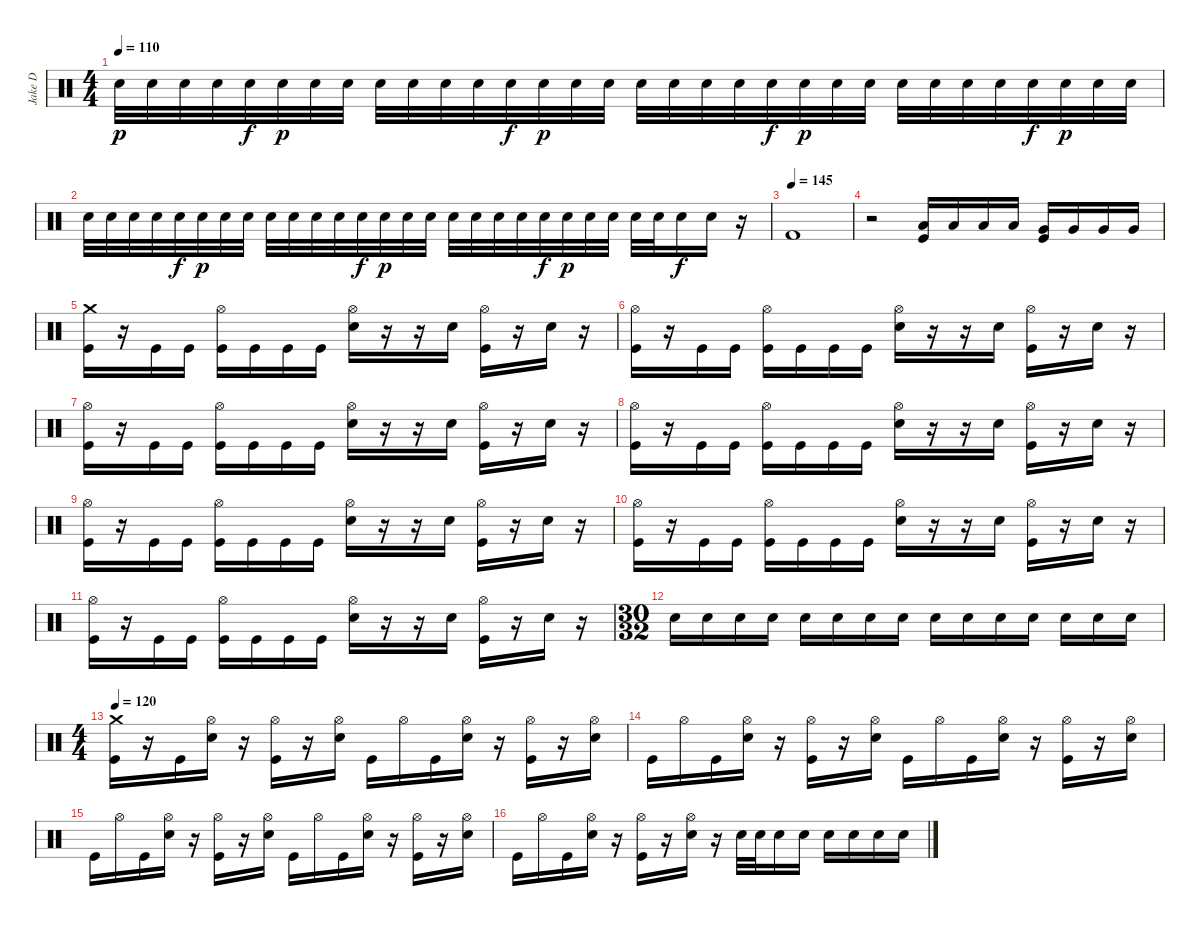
\track ("Jake D" "Jake D") {instrument percussion}
\staff {score}
\articulation defaults
\ts (4 4)
\tempo 110
\clef neutral
\ks c "Electric Snare (hit)".32{dy p} "Electric Snare (hit)".32 "Electric Snare (hit)".32 "Electric Snare (hit)".32 "Electric Snare (hit)".32{dy f} "Electric Snare (hit)".32{dy p} "Electric Snare (hit)".32 "Electric Snare (hit)".32 "Electric Snare (hit)".32 "Electric Snare (hit)".32 "Electric Snare (hit)".32 "Electric Snare (hit)".32 "Electric Snare (hit)".32{dy f} "Electric Snare (hit)".32{dy p} "Electric Snare (hit)".32 "Electric Snare (hit)".32 "Electric Snare (hit)".32 "Electric Snare (hit)".32 "Electric Snare (hit)".32 "Electric Snare (hit)".32 "Electric Snare (hit)".32{dy f} "Electric Snare (hit)".32{dy p} "Electric Snare (hit)".32 "Electric Snare (hit)".32 "Electric Snare (hit)".32 "Electric Snare (hit)".32 "Electric Snare (hit)".32 "Electric Snare (hit)".32 "Electric Snare (hit)".32{dy f} "Electric Snare (hit)".32{dy p} "Electric Snare (hit)".32 "Electric Snare (hit)".32
|
"Electric Snare (hit)".32 "Electric Snare (hit)".32 "Electric Snare (hit)".32 "Electric Snare (hit)".32 "Electric Snare (hit)".32{dy f} "Electric Snare (hit)".32{dy p} "Electric Snare (hit)".32 "Electric Snare (hit)".32 "Electric Snare (hit)".32 "Electric Snare (hit)".32 "Electric Snare (hit)".32 "Electric Snare (hit)".32 "Electric Snare (hit)".32{dy f} "Electric Snare (hit)".32{dy p} "Electric Snare (hit)".32 "Electric Snare (hit)".32 "Electric Snare (hit)".32 "Electric Snare (hit)".32 "Electric Snare (hit)".32 "Electric Snare (hit)".32 "Electric Snare (hit)".32{dy f} "Electric Snare (hit)".32{dy p} "Electric Snare (hit)".32 "Electric Snare (hit)".32 "Electric Snare (hit)".32 "Electric Snare (hit)".32 "Electric Snare (hit)".16{dy f} "Electric Snare (hit)".16 r.16 |
\tempo (145)
"Kick (hit) 2".1 |
r.2 ("Low Tom (hit)" "Kick (hit)").16 "Low Tom (hit)".16 "Low Tom (hit)".16 "Low Tom (hit)".16 ("Very Low Tom (hit)" "Kick (hit)").16 "Very Low Tom (hit)".16 "Very Low Tom (hit)".16 "Very Low Tom (hit)".16 |
("Crash medium (hit)" "Kick (hit)").16 r.16 "Kick (hit)".16 "Kick (hit)".16 ("Hi-Hat (open)" "Kick (hit)").16 "Kick (hit)".16 "Kick (hit)".16 "Kick (hit)".16 ("Hi-Hat (open)" "Electric Snare (hit)").16 r.16 r.16 "Electric Snare (hit)".16 ("Hi-Hat (open)" "Kick (hit)").16 r.16 "Electric Snare (hit)".16 r.16 |
("Hi-Hat (open)" "Kick (hit)").16 r.16 "Kick (hit)".16 "Kick (hit)".16 ("Hi-Hat (open)" "Kick (hit)").16 "Kick (hit)".16 "Kick (hit)".16 "Kick (hit)".16 ("Hi-Hat (open)" "Electric Snare (hit)").16 r.16 r.16 "Electric Snare (hit)".16 ("Hi-Hat (open)" "Kick (hit)").16 r.16 "Electric Snare (hit)".16 r.16 |
("Hi-Hat (open)" "Kick (hit)").16 r.16 "Kick (hit)".16 "Kick (hit)".16 ("Hi-Hat (open)" "Kick (hit)").16 "Kick (hit)".16 "Kick (hit)".16 "Kick (hit)".16 ("Hi-Hat (open)" "Electric Snare (hit)").16 r.16 r.16 "Electric Snare (hit)".16 ("Hi-Hat (open)" "Kick (hit)").16 r.16 "Electric Snare (hit)".16 r.16 |
("Hi-Hat (open)" "Kick (hit)").16 r.16 "Kick (hit)".16 "Kick (hit)".16 ("Hi-Hat (open)" "Kick (hit)").16 "Kick (hit)".16 "Kick (hit)".16 "Kick (hit)".16 ("Hi-Hat (open)" "Electric Snare (hit)").16 r.16 r.16 "Electric Snare (hit)".16 ("Hi-Hat (open)" "Kick (hit)").16 r.16 "Electric Snare (hit)".16 r.16 |
("Hi-Hat (open)" "Kick (hit)").16 r.16 "Kick (hit)".16 "Kick (hit)".16 ("Hi-Hat (open)" "Kick (hit)").16 "Kick (hit)".16 "Kick (hit)".16 "Kick (hit)".16 ("Hi-Hat (open)" "Electric Snare (hit)").16 r.16 r.16 "Electric Snare (hit)".16 ("Hi-Hat (open)" "Kick (hit)").16 r.16 "Electric Snare (hit)".16 r.16 |
("Hi-Hat (open)" "Kick (hit)").16 r.16 "Kick (hit)".16 "Kick (hit)".16 ("Hi-Hat (open)" "Kick (hit)").16 "Kick (hit)".16 "Kick (hit)".16 "Kick (hit)".16 ("Hi-Hat (open)" "Electric Snare (hit)").16 r.16 r.16 "Electric Snare (hit)".16 ("Hi-Hat (open)" "Kick (hit)").16 r.16 "Electric Snare (hit)".16 r.16 |
("Hi-Hat (open)" "Kick (hit)").16 r.16 "Kick (hit)".16 "Kick (hit)".16 ("Hi-Hat (open)" "Kick (hit)").16 "Kick (hit)".16 "Kick (hit)".16 "Kick (hit)".16 ("Hi-Hat (open)" "Electric Snare (hit)").16 r.16 r.16 "Electric Snare (hit)".16 ("Hi-Hat (open)" "Kick (hit)").16 r.16 "Electric Snare (hit)".16 r.16 |
\ts (30 32)
"Electric Snare (hit)".16 "Electric Snare (hit)".16 "Electric Snare (hit)".16 "Electric Snare (hit)".16 "Electric Snare (hit)".16 "Electric Snare (hit)".16 "Electric Snare (hit)".16 "Electric Snare (hit)".16 "Electric Snare (hit)".16 "Electric Snare (hit)".16 "Electric Snare (hit)".16 "Electric Snare (hit)".16 "Electric Snare (hit)".16 "Electric Snare (hit)".16 "Electric Snare (hit)".16 |
\ts (4 4)
\tempo 120
("Crash medium (hit)" "Kick (hit)").16 r.16 "Kick (hit)".16 ("Hi-Hat (open)" "Electric Snare (hit)").16 r.16 ("Hi-Hat (open)" "Kick (hit)").16 r.16 ("Hi-Hat (open)" "Electric Snare (hit)").16 "Kick (hit)".16 "Hi-Hat (open)".16 "Kick (hit)".16 ("Hi-Hat (open)" "Electric Snare (hit)").16 r.16 ("Hi-Hat (open)" "Kick (hit)").16 r.16 ("Hi-Hat (open)" "Electric Snare (hit)").16 |
"Kick (hit)".16 "Hi-Hat (open)".16 "Kick (hit)".16 ("Hi-Hat (open)" "Electric Snare (hit)").16 r.16 ("Hi-Hat (open)" "Kick (hit)").16 r.16 ("Hi-Hat (open)" "Electric Snare (hit)").16 "Kick (hit)".16 "Hi-Hat (open)".16 "Kick (hit)".16 ("Hi-Hat (open)" "Electric Snare (hit)").16 r.16 ("Hi-Hat (open)" "Kick (hit)").16 r.16 ("Hi-Hat (open)" "Electric Snare (hit)").16 |
"Kick (hit)".16 "Hi-Hat (open)".16 "Kick (hit)".16 ("Hi-Hat (open)" "Electric Snare (hit)").16 r.16 ("Hi-Hat (open)" "Kick (hit)").16 r.16 ("Hi-Hat (open)" "Electric Snare (hit)").16 "Kick (hit)".16 "Hi-Hat (open)".16 "Kick (hit)".16 ("Hi-Hat (open)" "Electric Snare (hit)").16 r.16 ("Hi-Hat (open)" "Kick (hit)").16 r.16 ("Hi-Hat (open)" "Electric Snare (hit)").16 |
"Kick (hit)".16 "Hi-Hat (open)".16 "Kick (hit)".16 ("Hi-Hat (open)" "Electric Snare (hit)").16 r.16 ("Hi-Hat (open)" "Kick (hit)").16 r.16 ("Hi-Hat (open)" "Electric Snare (hit)").16 r.16 "Electric Snare (hit)".32 "Electric Snare (hit)".32 "Electric Snare (hit)".16 "Electric Snare (hit)".16 "Electric Snare (hit)".16 "Electric Snare (hit)".16 "Electric Snare (hit)".16 "Electric Snare (hit)".16
